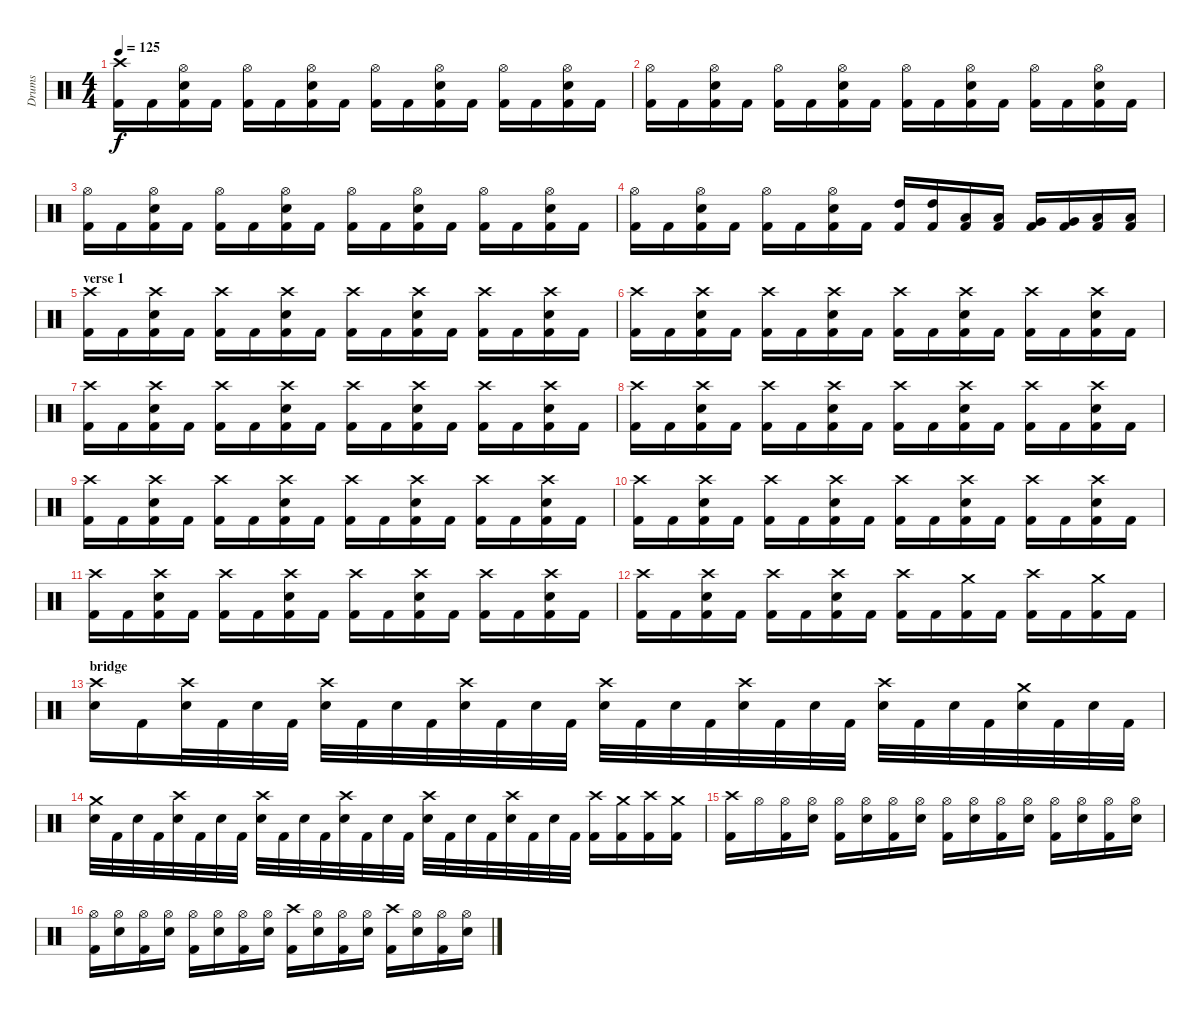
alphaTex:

\track ("Drums" "Drums") {instrument percussion}
\staff {score}
\articulation defaults
\ts (4 4)
\tempo 125
\clef neutral
\ks c
("Crash high (hit)" "Kick (hit) 2").16{dy f} "Kick (hit) 2".16 ("Hi-Hat (open)" "Electric Snare (hit)" "Kick (hit) 2").16 "Kick (hit) 2".16 ("Hi-Hat (open)" "Kick (hit) 2").16 "Kick (hit) 2".16 ("Hi-Hat (open)" "Electric Snare (hit)" "Kick (hit) 2").16 "Kick (hit) 2".16 ("Hi-Hat (open)" "Kick (hit) 2").16 "Kick (hit) 2".16 ("Hi-Hat (open)" "Electric Snare (hit)" "Kick (hit) 2").16 "Kick (hit) 2".16 ("Hi-Hat (open)" "Kick (hit) 2").16 "Kick (hit) 2".16 ("Hi-Hat (open)" "Electric Snare (hit)" "Kick (hit) 2").16 "Kick (hit) 2".16 |
("Hi-Hat (open)" "Kick (hit) 2").16 "Kick (hit) 2".16 ("Hi-Hat (open)" "Electric Snare (hit)" "Kick (hit) 2").16 "Kick (hit) 2".16 ("Hi-Hat (open)" "Kick (hit) 2").16 "Kick (hit) 2".16 ("Hi-Hat (open)" "Electric Snare (hit)" "Kick (hit) 2").16 "Kick (hit) 2".16 ("Hi-Hat (open)" "Kick (hit) 2").16 "Kick (hit) 2".16 ("Hi-Hat (open)" "Electric Snare (hit)" "Kick (hit) 2").16 "Kick (hit) 2".16 ("Hi-Hat (open)" "Kick (hit) 2").16 "Kick (hit) 2".16 ("Hi-Hat (open)" "Electric Snare (hit)" "Kick (hit) 2").16 "Kick (hit) 2".16 |
("Hi-Hat (open)" "Kick (hit) 2").16 "Kick (hit) 2".16 ("Hi-Hat (open)" "Electric Snare (hit)" "Kick (hit) 2").16 "Kick (hit) 2".16 ("Hi-Hat (open)" "Kick (hit) 2").16 "Kick (hit) 2".16 ("Hi-Hat (open)" "Electric Snare (hit)" "Kick (hit) 2").16 "Kick (hit) 2".16 ("Hi-Hat (open)" "Kick (hit) 2").16 "Kick (hit) 2".16 ("Hi-Hat (open)" "Electric Snare (hit)" "Kick (hit) 2").16 "Kick (hit) 2".16 ("Hi-Hat (open)" "Kick (hit) 2").16 "Kick (hit) 2".16 ("Hi-Hat (open)" "Electric Snare (hit)" "Kick (hit) 2").16 "Kick (hit) 2".16 |
("Hi-Hat (open)" "Kick (hit) 2").16 "Kick (hit) 2".16 ("Hi-Hat (open)" "Electric Snare (hit)" "Kick (hit) 2").16 "Kick (hit) 2".16 ("Hi-Hat (open)" "Kick (hit) 2").16 "Kick (hit) 2".16 ("Hi-Hat (open)" "Electric Snare (hit)" "Kick (hit) 2").16 "Kick (hit) 2".16 ("High Tom (hit)" "Kick (hit) 2").16 ("High Tom (hit)" "Kick (hit) 2").16 ("Low Tom (hit)" "Kick (hit) 2").16 ("Low Tom (hit)" "Kick (hit) 2").16 ("Very Low Tom (hit)" "Kick (hit) 2").16 ("Very Low Tom (hit)" "Kick (hit) 2").16 ("Low Floor Tom (hit)" "Kick (hit) 2").16 ("Low Floor Tom (hit)" "Kick (hit) 2").16 |
\section ("" "verse 1")
("Crash high (hit)" "Kick (hit) 2").16 "Kick (hit) 2".16 ("Crash high (hit)" "Electric Snare (hit)" "Kick (hit) 2").16 "Kick (hit) 2".16 ("Crash high (hit)" "Kick (hit) 2").16 "Kick (hit) 2".16 ("Crash high (hit)" "Electric Snare (hit)" "Kick (hit) 2").16 "Kick (hit) 2".16 ("Crash high (hit)" "Kick (hit) 2").16 "Kick (hit) 2".16 ("Crash high (hit)" "Electric Snare (hit)" "Kick (hit) 2").16 "Kick (hit) 2".16 ("Crash high (hit)" "Kick (hit) 2").16 "Kick (hit) 2".16 ("Crash high (hit)" "Electric Snare (hit)" "Kick (hit) 2").16 "Kick (hit) 2".16 |
("Crash high (hit)" "Kick (hit) 2").16 "Kick (hit) 2".16 ("Crash high (hit)" "Electric Snare (hit)" "Kick (hit) 2").16 "Kick (hit) 2".16 ("Crash high (hit)" "Kick (hit) 2").16 "Kick (hit) 2".16 ("Crash high (hit)" "Electric Snare (hit)" "Kick (hit) 2").16 "Kick (hit) 2".16 ("Crash high (hit)" "Kick (hit) 2").16 "Kick (hit) 2".16 ("Crash high (hit)" "Electric Snare (hit)" "Kick (hit) 2").16 "Kick (hit) 2".16 ("Crash high (hit)" "Kick (hit) 2").16 "Kick (hit) 2".16 ("Crash high (hit)" "Electric Snare (hit)" "Kick (hit) 2").16 "Kick (hit) 2".16 |
("Crash high (hit)" "Kick (hit) 2").16 "Kick (hit) 2".16 ("Crash high (hit)" "Electric Snare (hit)" "Kick (hit) 2").16 "Kick (hit) 2".16 ("Crash high (hit)" "Kick (hit) 2").16 "Kick (hit) 2".16 ("Crash high (hit)" "Electric Snare (hit)" "Kick (hit) 2").16 "Kick (hit) 2".16 ("Crash high (hit)" "Kick (hit) 2").16 "Kick (hit) 2".16 ("Crash high (hit)" "Electric Snare (hit)" "Kick (hit) 2").16 "Kick (hit) 2".16 ("Crash high (hit)" "Kick (hit) 2").16 "Kick (hit) 2".16 ("Crash high (hit)" "Electric Snare (hit)" "Kick (hit) 2").16 "Kick (hit) 2".16 |
("Crash high (hit)" "Kick (hit) 2").16 "Kick (hit) 2".16 ("Crash high (hit)" "Electric Snare (hit)" "Kick (hit) 2").16 "Kick (hit) 2".16 ("Crash high (hit)" "Kick (hit) 2").16 "Kick (hit) 2".16 ("Crash high (hit)" "Electric Snare (hit)" "Kick (hit) 2").16 "Kick (hit) 2".16 ("Crash high (hit)" "Kick (hit) 2").16 "Kick (hit) 2".16 ("Crash high (hit)" "Electric Snare (hit)" "Kick (hit) 2").16 "Kick (hit) 2".16 ("Crash high (hit)" "Kick (hit) 2").16 "Kick (hit) 2".16 ("Crash high (hit)" "Electric Snare (hit)" "Kick (hit) 2").16 "Kick (hit) 2".16 |
("Crash high (hit)" "Kick (hit) 2").16 "Kick (hit) 2".16 ("Crash high (hit)" "Electric Snare (hit)" "Kick (hit) 2").16 "Kick (hit) 2".16 ("Crash high (hit)" "Kick (hit) 2").16 "Kick (hit) 2".16 ("Crash high (hit)" "Electric Snare (hit)" "Kick (hit) 2").16 "Kick (hit) 2".16 ("Crash high (hit)" "Kick (hit) 2").16 "Kick (hit) 2".16 ("Crash high (hit)" "Electric Snare (hit)" "Kick (hit) 2").16 "Kick (hit) 2".16 ("Crash high (hit)" "Kick (hit) 2").16 "Kick (hit) 2".16 ("Crash high (hit)" "Electric Snare (hit)" "Kick (hit) 2").16 "Kick (hit) 2".16 |
("Crash high (hit)" "Kick (hit) 2").16 "Kick (hit) 2".16 ("Crash high (hit)" "Electric Snare (hit)" "Kick (hit) 2").16 "Kick (hit) 2".16 ("Crash high (hit)" "Kick (hit) 2").16 "Kick (hit) 2".16 ("Crash high (hit)" "Electric Snare (hit)" "Kick (hit) 2").16 "Kick (hit) 2".16 ("Crash high (hit)" "Kick (hit) 2").16 "Kick (hit) 2".16 ("Crash high (hit)" "Electric Snare (hit)" "Kick (hit) 2").16 "Kick (hit) 2".16 ("Crash high (hit)" "Kick (hit) 2").16 "Kick (hit) 2".16 ("Crash high (hit)" "Electric Snare (hit)" "Kick (hit) 2").16 "Kick (hit) 2".16 |
("Crash high (hit)" "Kick (hit) 2").16 "Kick (hit) 2".16 ("Crash high (hit)" "Electric Snare (hit)" "Kick (hit) 2").16 "Kick (hit) 2".16 ("Crash high (hit)" "Kick (hit) 2").16 "Kick (hit) 2".16 ("Crash high (hit)" "Electric Snare (hit)" "Kick (hit) 2").16 "Kick (hit) 2".16 ("Crash high (hit)" "Kick (hit) 2").16 "Kick (hit) 2".16 ("Crash high (hit)" "Electric Snare (hit)" "Kick (hit) 2").16 "Kick (hit) 2".16 ("Crash high (hit)" "Kick (hit) 2").16 "Kick (hit) 2".16 ("Crash high (hit)" "Electric Snare (hit)" "Kick (hit) 2").16 "Kick (hit) 2".16 |
("Crash high (hit)" "Kick (hit) 2").16 "Kick (hit) 2".16 ("Crash high (hit)" "Electric Snare (hit)" "Kick (hit) 2").16 "Kick (hit) 2".16 ("Crash high (hit)" "Kick (hit) 2").16 "Kick (hit) 2".16 ("Crash high (hit)" "Electric Snare (hit)" "Kick (hit) 2").16 "Kick (hit) 2".16 ("Crash high (hit)" "Kick (hit) 2").16 "Kick (hit) 2".16 ("Crash medium (hit)" "Kick (hit) 2").16 "Kick (hit) 2".16 ("Crash high (hit)" "Kick (hit) 2").16 "Kick (hit) 2".16 ("Crash medium (hit)" "Kick (hit) 2").16 "Kick (hit) 2".16 |
\section ("" "bridge")
("Crash high (hit)" "Electric Snare (hit)").16 "Kick (hit) 2".16 ("Crash high (hit)" "Electric Snare (hit)").32 "Kick (hit) 2".32 "Electric Snare (hit)".32 "Kick (hit) 2".32 ("Crash high (hit)" "Electric Snare (hit)").32 "Kick (hit) 2".32 "Electric Snare (hit)".32 "Kick (hit) 2".32 ("Crash high (hit)" "Electric Snare (hit)").32 "Kick (hit) 2".32 "Electric Snare (hit)".32 "Kick (hit) 2".32 ("Crash high (hit)" "Electric Snare (hit)").32 "Kick (hit) 2".32 "Electric Snare (hit)".32 "Kick (hit) 2".32 ("Crash high (hit)" "Electric Snare (hit)").32 "Kick (hit) 2".32 "Electric Snare (hit)".32 "Kick (hit) 2".32 ("Crash high (hit)" "Electric Snare (hit)").32 "Kick (hit) 2".32 "Electric Snare (hit)".32 "Kick (hit) 2".32 ("Crash medium (hit)" "Electric Snare (hit)").32 "Kick (hit) 2".32 "Electric Snare (hit)".32 "Kick (hit) 2".32 |
("Crash medium (hit)" "Electric Snare (hit)").32 "Kick (hit) 2".32 "Electric Snare (hit)".32 "Kick (hit) 2".32 ("Crash high (hit)" "Electric Snare (hit)").32 "Kick (hit) 2".32 "Electric Snare (hit)".32 "Kick (hit) 2".32 ("Crash high (hit)" "Electric Snare (hit)").32 "Kick (hit) 2".32 "Electric Snare (hit)".32 "Kick (hit) 2".32 ("Crash high (hit)" "Electric Snare (hit)").32 "Kick (hit) 2".32 "Electric Snare (hit)".32 "Kick (hit) 2".32 ("Crash high (hit)" "Electric Snare (hit)").32 "Kick (hit) 2".32 "Electric Snare (hit)".32 "Kick (hit) 2".32 ("Crash high (hit)" "Electric Snare (hit)").32 "Kick (hit) 2".32 "Electric Snare (hit)".32 "Kick (hit) 2".32 ("Crash high (hit)" "Kick (hit) 2").16 ("Crash medium (hit)" "Kick (hit) 2").16 ("Crash high (hit)" "Kick (hit) 2").16 ("Crash medium (hit)" "Kick (hit) 2").16 |
("Crash high (hit)" "Kick (hit) 2").16 "Hi-Hat (open)".16 ("Hi-Hat (open)" "Kick (hit) 2").16 ("Hi-Hat (open)" "Electric Snare (hit)").16 ("Hi-Hat (open)" "Kick (hit) 2").16 ("Hi-Hat (open)" "Electric Snare (hit)").16 ("Hi-Hat (open)" "Kick (hit) 2").16 ("Hi-Hat (open)" "Electric Snare (hit)").16 ("Hi-Hat (open)" "Kick (hit) 2").16 ("Hi-Hat (open)" "Electric Snare (hit)").16 ("Hi-Hat (open)" "Kick (hit) 2").16 ("Hi-Hat (open)" "Electric Snare (hit)").16 ("Hi-Hat (open)" "Kick (hit) 2").16 ("Hi-Hat (open)" "Electric Snare (hit)").16 ("Hi-Hat (open)" "Kick (hit) 2").16 ("Hi-Hat (open)" "Electric Snare (hit)").16 |
("Hi-Hat (open)" "Kick (hit) 2").16 ("Hi-Hat (open)" "Electric Snare (hit)").16 ("Hi-Hat (open)" "Kick (hit) 2").16 ("Hi-Hat (open)" "Electric Snare (hit)").16 ("Hi-Hat (open)" "Kick (hit) 2").16 ("Hi-Hat (open)" "Electric Snare (hit)").16 ("Hi-Hat (open)" "Kick (hit) 2").16 ("Hi-Hat (open)" "Electric Snare (hit)").16 ("Crash high (hit)" "Kick (hit) 2").16 ("Hi-Hat (open)" "Electric Snare (hit)").16 ("Hi-Hat (open)" "Kick (hit) 2").16 ("Hi-Hat (open)" "Electric Snare (hit)").16 ("Crash high (hit)" "Kick (hit) 2").16 ("Hi-Hat (open)" "Electric Snare (hit)").16 ("Hi-Hat (open)" "Kick (hit) 2").16 ("Hi-Hat (open)" "Electric Snare (hit)").16
